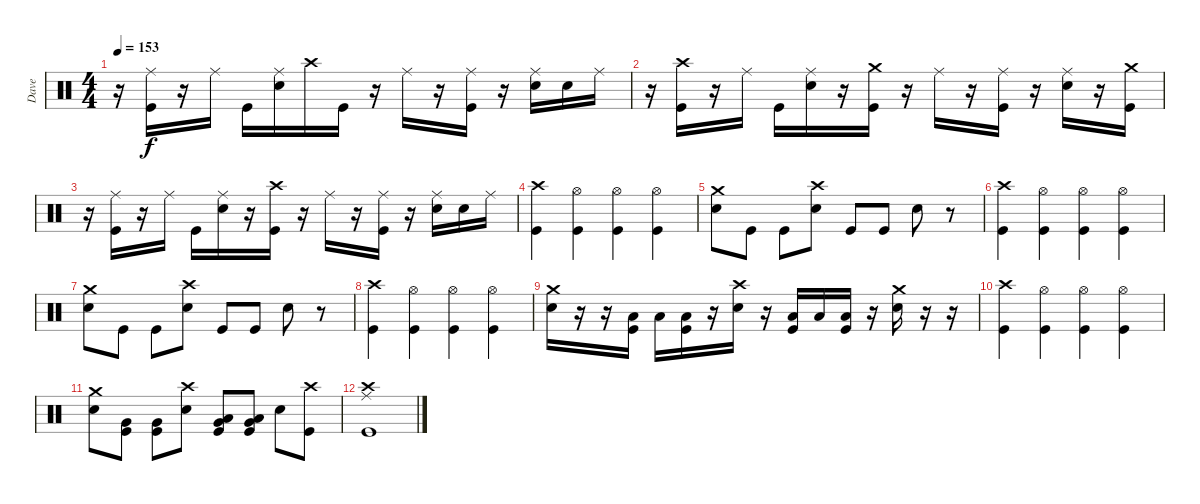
\track ("Dave" "Dave") {solo instrument percussion}
\staff {score}
\articulation defaults
\ts (4 4)
\tempo 153
\clef neutral
\ks c
r.16{dy f} ("Ride (middle)" "Kick (hit)").16 r.16 "Ride (middle)".16 "Kick (hit)".16 ("Ride (middle)" "Snare (hit) 2").16 "Crash high (hit)".16 "Kick (hit)".16 r.16 "Ride (middle)".16 r.16 ("Ride (middle)" "Kick (hit)").16 r.16 ("Ride (middle)" "Snare (hit) 2").16 "Snare (hit) 2".16 "Ride (middle)".16 |
r.16 ("Crash high (hit)" "Kick (hit)").16 r.16 "Ride (middle)".16 "Kick (hit)".16 ("Ride (middle)" "Snare (hit) 2").16 r.16 ("Crash medium (hit)" "Kick (hit)").16 r.16 "Ride (middle)".16 r.16 ("Ride (middle)" "Kick (hit)").16 r.16 ("Ride (middle)" "Snare (hit) 2").16 r.16 ("Crash medium (hit)" "Kick (hit)").16 |
r.16 ("Ride (middle)" "Kick (hit)").16 r.16 "Ride (middle)".16 "Kick (hit)".16 ("Ride (middle)" "Snare (hit) 2").16 r.16 ("Crash high (hit)" "Kick (hit)").16 r.16 "Ride (middle)".16 r.16 ("Ride (middle)" "Kick (hit)").16 r.16 ("Ride (middle)" "Snare (hit) 2").16 "Snare (hit) 2".16 "Ride (middle)".16 |
("Crash high (hit)" "Kick (hit)").4 ("Hi-Hat (open)" "Kick (hit)").4 ("Hi-Hat (open)" "Kick (hit)").4 ("Hi-Hat (open)" "Kick (hit)").4 |
("Crash medium (hit)" "Snare (hit) 2").8 "Kick (hit)".8 "Kick (hit)".8 ("Crash high (hit)" "Snare (hit) 2").8 "Kick (hit)".8 "Kick (hit)".8 "Snare (hit) 2".8 r.8 |
("Crash high (hit)" "Kick (hit)").4 ("Hi-Hat (open)" "Kick (hit)").4 ("Hi-Hat (open)" "Kick (hit)").4 ("Hi-Hat (open)" "Kick (hit)").4 |
("Crash medium (hit)" "Snare (hit) 2").8 "Kick (hit)".8 "Kick (hit)".8 ("Crash high (hit)" "Snare (hit) 2").8 "Kick (hit)".8 "Kick (hit)".8 "Snare (hit) 2".8 r.8 |
("Crash high (hit)" "Kick (hit)").4 ("Hi-Hat (open)" "Kick (hit)").4 ("Hi-Hat (open)" "Kick (hit)").4 ("Hi-Hat (open)" "Kick (hit)").4 |
("Crash medium (hit)" "Snare (hit) 2").16 r.16 r.16{beam merge} ("Low Tom (hit)" "Kick (hit)").16 "Low Tom (hit)".16 ("Low Tom (hit)" "Kick (hit)").16 r.16 ("Crash high (hit)" "Snare (hit) 2").16 r.16{beam merge} ("Low Tom (hit)" "Kick (hit)").16 "Low Tom (hit)".16 ("Low Tom (hit)" "Kick (hit)").16 r.16 ("Crash medium (hit)" "Snare (hit) 2").16 r.16 r.16 |
("Crash high (hit)" "Kick (hit)").4 ("Hi-Hat (open)" "Kick (hit)").4 ("Hi-Hat (open)" "Kick (hit)").4 ("Hi-Hat (open)" "Kick (hit)").4 |
("Crash medium (hit)" "Snare (hit) 2").8 ("Very Low Tom (hit)" "Kick (hit)").8 ("Very Low Tom (hit)" "Kick (hit)").8 ("Crash high (hit)" "Snare (hit) 2").8 ("Low Tom (hit)" "Very Low Tom (hit)" "Kick (hit)").8 ("Low Tom (hit)" "Very Low Tom (hit)" "Kick (hit)").8 "Snare (hit) 2".8 ("Crash high (hit)" "Kick (hit)").8 |
("Crash high (hit)" "Ride (middle)" "Kick (hit)").1
